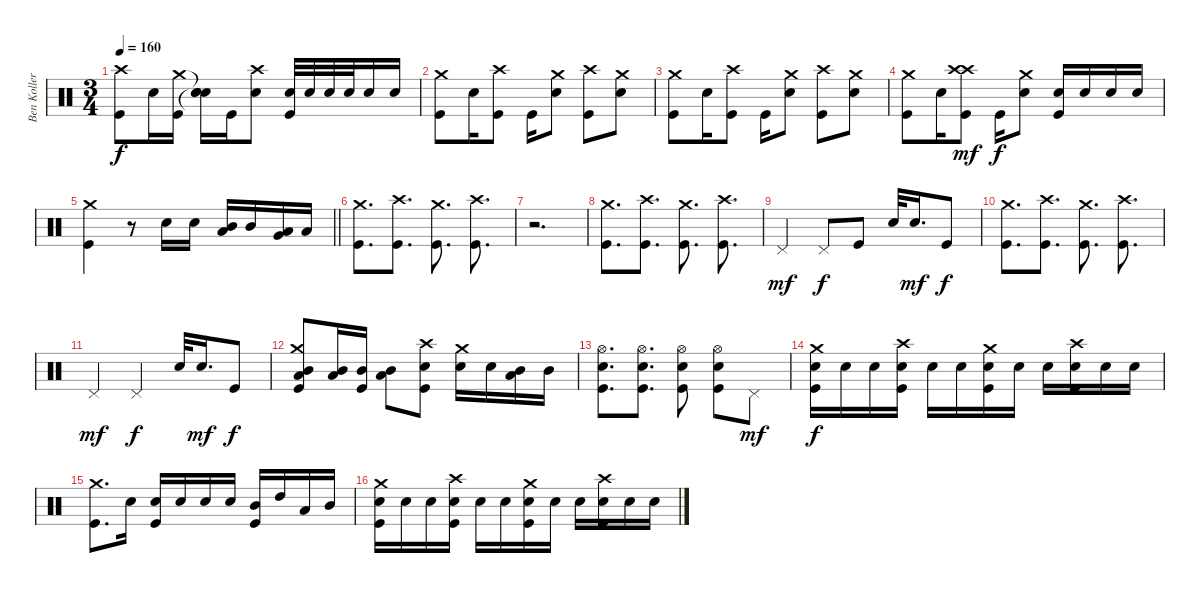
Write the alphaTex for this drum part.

\track ("Ben Koller" "Ben Koller") {instrument percussion}
\staff {score}
\articulation defaults
\ts (3 4)
\tempo 160
\clef neutral
\ks c
("Crash high (hit)" "Kick (hit)").8{dy f} "Electric Snare (hit)".16 ("Crash medium (hit)" "Kick (hit)").16 ("Snare (hit)"{t} "Snare (hit)"{t} "Snare (hit)").16 "Kick (hit)".16 ("Crash high (hit)" "Electric Snare (hit)").8 ("Electric Snare (hit)" "Kick (hit)").32 "Electric Snare (hit)".32 "Electric Snare (hit)".32 "Electric Snare (hit)".32 "Electric Snare (hit)".16 "Electric Snare (hit)".16 |
("Crash medium (hit)" "Kick (hit)").8 "Electric Snare (hit)".16 ("Crash high (hit)" "Kick (hit)").8 "Kick (hit)".16 ("Crash medium (hit)" "Electric Snare (hit)").8 ("Crash high (hit)" "Kick (hit)").8 ("Crash medium (hit)" "Electric Snare (hit)").8 |
("Crash medium (hit)" "Kick (hit)").8 "Electric Snare (hit)".16 ("Crash high (hit)" "Kick (hit)").8 "Kick (hit)".16 ("Crash medium (hit)" "Electric Snare (hit)").8 ("Crash high (hit)" "Kick (hit)").8 ("Crash medium (hit)" "Electric Snare (hit)").8 |
("Crash medium (hit)" "Kick (hit)").8 "Electric Snare (hit)".16 ("Crash high (hit)" "Crash high (hit)" "Kick (hit)").8{dy mf} "Kick (hit)".16{dy f} ("Crash medium (hit)" "Electric Snare (hit)").8 ("Electric Snare (hit)" "Kick (hit)").16 "Electric Snare (hit)".16 "Electric Snare (hit)".16 "Electric Snare (hit)".16 |
\barLineRight lightlight
("Crash medium (hit)" "Kick (hit)").4 r.8 "Electric Snare (hit)".16 "Electric Snare (hit)".16 ("Mid Tom (hit)" "Low Tom (hit)").16 "Mid Tom (hit)".16 ("Low Tom (hit)" "Very Low Tom (hit)").16 "Low Tom (hit)".16 |
("Crash medium (hit)" "Kick (hit)").8{d} ("Crash high (hit)" "Kick (hit)").8{d} ("Crash medium (hit)" "Kick (hit)").8{d} ("Crash high (hit)" "Kick (hit)").8{d} |
r.2{d} |
("Crash medium (hit)" "Kick (hit)").8{d} ("Crash high (hit)" "Kick (hit)").8{d} ("Crash medium (hit)" "Kick (hit)").8{d} ("Crash high (hit)" "Kick (hit)").8{d} |
"Pedal Hi-Hat (hit)".4{dy mf} "Pedal Hi-Hat (hit)".8{dy f} "Kick (hit)".8 "Electric Snare (hit)".32 "Electric Snare (hit)".16{d dy mf} "Kick (hit)".8{dy f} |
("Crash medium (hit)" "Kick (hit)").8{d} ("Crash high (hit)" "Kick (hit)").8{d} ("Crash medium (hit)" "Kick (hit)").8{d} ("Crash high (hit)" "Kick (hit)").8{d} |
"Pedal Hi-Hat (hit)".4{dy mf} "Pedal Hi-Hat (hit)".4{dy f} "Electric Snare (hit)".32 "Electric Snare (hit)".16{d dy mf} "Kick (hit)".8{dy f} |
("Crash medium (hit)" "Mid Tom (hit)" "Low Tom (hit)" "Kick (hit)").8 ("Mid Tom (hit)" "Low Tom (hit)").16 ("Mid Tom (hit)" "Kick (hit)").16 ("Mid Tom (hit)" "Low Tom (hit)").8 ("Crash high (hit)" "Electric Snare (hit)" "Kick (hit)").8 ("Crash medium (hit)" "Electric Snare (hit)").16 "Electric Snare (hit)".16 ("Mid Tom (hit)" "Low Tom (hit)").16 "Mid Tom (hit)".16 |
("Hi-Hat (open)" "Electric Snare (hit)" "Kick (hit)").8{d} ("Hi-Hat (open)" "Electric Snare (hit)" "Kick (hit)").8{d} ("Hi-Hat (open)" "Electric Snare (hit)" "Kick (hit)").8 ("Hi-Hat (open)" "Electric Snare (hit)" "Kick (hit)").8 "Pedal Hi-Hat (hit)".8{dy mf} |
("Crash medium (hit)" "Electric Snare (hit)" "Kick (hit)").16{dy f} "Electric Snare (hit)".16 "Electric Snare (hit)".16 ("Crash high (hit)" "Electric Snare (hit)" "Kick (hit)").16 "Electric Snare (hit)".16 "Electric Snare (hit)".16 ("Crash medium (hit)" "Electric Snare (hit)" "Kick (hit)").16 "Electric Snare (hit)".16 "Electric Snare (hit)".16 ("Crash high (hit)" "Electric Snare (hit)" "Kick (hit)").16 "Electric Snare (hit)".16 "Electric Snare (hit)".16 |
("Crash medium (hit)" "Kick (hit)").8{d} "Electric Snare (hit)".16 ("Electric Snare (hit)" "Kick (hit)").16 "Electric Snare (hit)".16 "Electric Snare (hit)".16 "Electric Snare (hit)".16 ("Mid Tom (hit)" "Kick (hit)").16 "High Tom (hit)".16 "Low Tom (hit)".16 "Mid Tom (hit)".16 |
("Crash medium (hit)" "Electric Snare (hit)" "Kick (hit)").16 "Electric Snare (hit)".16 "Electric Snare (hit)".16 ("Crash high (hit)" "Electric Snare (hit)" "Kick (hit)").16 "Electric Snare (hit)".16 "Electric Snare (hit)".16 ("Crash medium (hit)" "Electric Snare (hit)" "Kick (hit)").16 "Electric Snare (hit)".16 "Electric Snare (hit)".16 ("Crash high (hit)" "Electric Snare (hit)" "Kick (hit)").16 "Electric Snare (hit)".16 "Electric Snare (hit)".16
